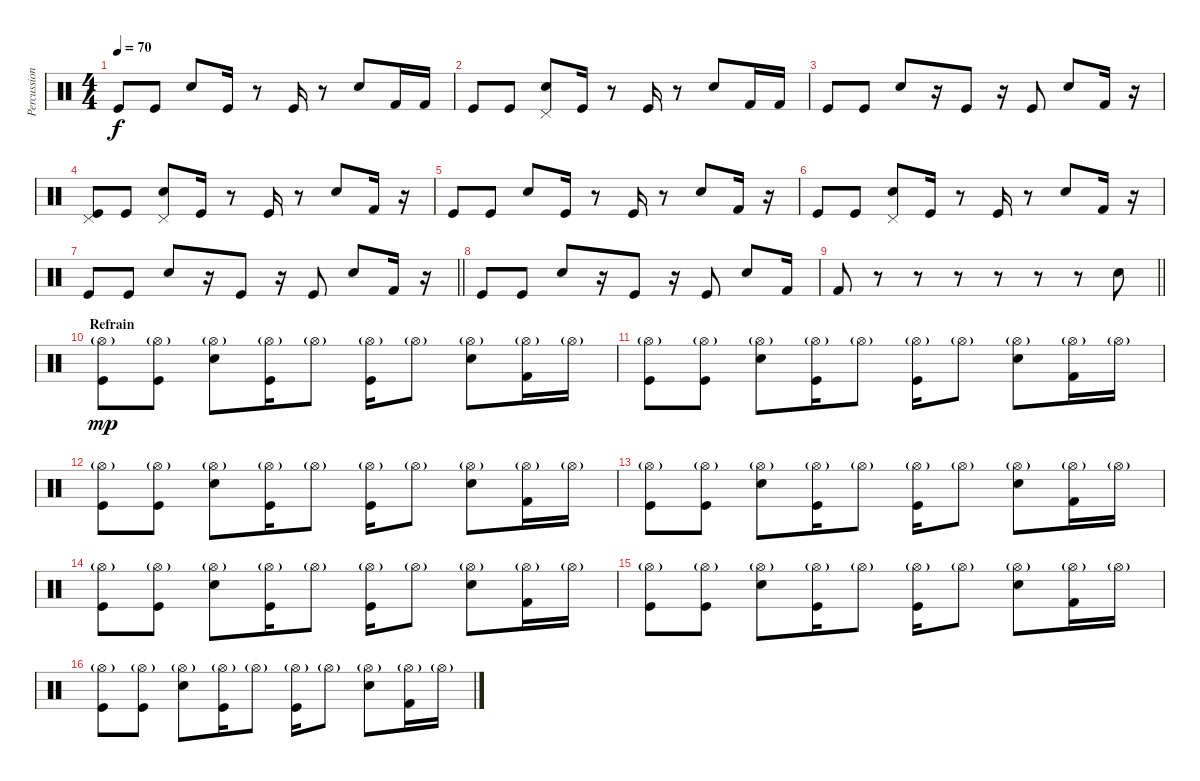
\track ("Percussion" "Percussion") {instrument percussion}
\staff {score}
\articulation defaults
\ts (4 4)
\tempo 70
\clef neutral
\ks c "Kick (hit)".8{dy f} "Kick (hit)".8 "Snare (hit) 2".8 "Kick (hit)".16
r.8 "Kick (hit)".16 r.8 "Snare (hit) 2".8 "Kick (hit) 2".16 "Kick (hit) 2".16 |
"Kick (hit)".8 "Kick (hit)".8 ("Pedal Hi-Hat (hit)" "Snare (hit) 2").8 "Kick (hit)".16 r.8 "Kick (hit)".16 r.8 "Snare (hit) 2".8 "Kick (hit) 2".16 "Kick (hit) 2".16 |
"Kick (hit)".8 "Kick (hit)".8 "Snare (hit) 2".8 r.16 "Kick (hit)".8 r.16 "Kick (hit)".8 "Snare (hit) 2".8 "Kick (hit) 2".16 r.16 |
("Pedal Hi-Hat (hit)" "Kick (hit)").8 "Kick (hit)".8 ("Pedal Hi-Hat (hit)" "Snare (hit) 2").8 "Kick (hit)".16 r.8 "Kick (hit)".16 r.8 "Snare (hit) 2".8 "Kick (hit) 2".16 r.16 |
"Kick (hit)".8 "Kick (hit)".8 "Snare (hit) 2".8 "Kick (hit)".16 r.8 "Kick (hit)".16 r.8 "Snare (hit) 2".8 "Kick (hit) 2".16 r.16 |
"Kick (hit)".8 "Kick (hit)".8 ("Pedal Hi-Hat (hit)" "Snare (hit) 2").8 "Kick (hit)".16 r.8 "Kick (hit)".16 r.8 "Snare (hit) 2".8 "Kick (hit) 2".16 r.16 |
\barLineRight lightlight "Kick (hit)".8 "Kick (hit)".8 "Snare (hit) 2".8
r.16 "Kick (hit)".8 r.16 "Kick (hit)".8 "Snare (hit) 2".8 "Kick (hit) 2".16 r.16 |
"Kick (hit)".8 "Kick (hit)".8 "Snare (hit) 2".8 r.16 "Kick (hit)".8 r.16 "Kick (hit)".8 "Snare (hit) 2".8 "Kick (hit) 2".16 |
\barLineRight lightlight "Kick (hit) 2".8
r.8 r.8 r.8 r.8 r.8 r.8 "Electric Snare (hit)".8 |
\section ("" "Refrain")
("Hi-Hat (open)"{g} "Kick (hit)").8{dy mp} ("Hi-Hat (open)"{g} "Kick (hit)").8 ("Hi-Hat (open)"{g} "Snare (hit) 2").8 ("Hi-Hat (open)"{g} "Kick (hit)").16 "Hi-Hat (open)"{g}.8 ("Hi-Hat (open)"{g} "Kick (hit)").16 "Hi-Hat (open)"{g}.8 ("Hi-Hat (open)"{g} "Snare (hit) 2").8 ("Hi-Hat (open)"{g} "Kick (hit) 2").16 "Hi-Hat (open)"{g}.16 |
("Hi-Hat (open)"{g} "Kick (hit)").8 ("Hi-Hat (open)"{g} "Kick (hit)").8 ("Hi-Hat (open)"{g} "Snare (hit) 2").8 ("Hi-Hat (open)"{g} "Kick (hit)").16 "Hi-Hat (open)"{g}.8 ("Hi-Hat (open)"{g} "Kick (hit)").16 "Hi-Hat (open)"{g}.8 ("Hi-Hat (open)"{g} "Snare (hit) 2").8 ("Hi-Hat (open)"{g} "Kick (hit) 2").16 "Hi-Hat (open)"{g}.16 |
("Hi-Hat (open)"{g} "Kick (hit)").8 ("Hi-Hat (open)"{g} "Kick (hit)").8 ("Hi-Hat (open)"{g} "Snare (hit) 2").8 ("Hi-Hat (open)"{g} "Kick (hit)").16 "Hi-Hat (open)"{g}.8 ("Hi-Hat (open)"{g} "Kick (hit)").16 "Hi-Hat (open)"{g}.8 ("Hi-Hat (open)"{g} "Snare (hit) 2").8 ("Hi-Hat (open)"{g} "Kick (hit) 2").16 "Hi-Hat (open)"{g}.16 |
("Hi-Hat (open)"{g} "Kick (hit)").8 ("Hi-Hat (open)"{g} "Kick (hit)").8 ("Hi-Hat (open)"{g} "Snare (hit) 2").8 ("Hi-Hat (open)"{g} "Kick (hit)").16 "Hi-Hat (open)"{g}.8 ("Hi-Hat (open)"{g} "Kick (hit)").16 "Hi-Hat (open)"{g}.8 ("Hi-Hat (open)"{g} "Snare (hit) 2").8 ("Hi-Hat (open)"{g} "Kick (hit) 2").16 "Hi-Hat (open)"{g}.16 |
("Hi-Hat (open)"{g} "Kick (hit)").8 ("Hi-Hat (open)"{g} "Kick (hit)").8 ("Hi-Hat (open)"{g} "Snare (hit) 2").8 ("Hi-Hat (open)"{g} "Kick (hit)").16 "Hi-Hat (open)"{g}.8 ("Hi-Hat (open)"{g} "Kick (hit)").16 "Hi-Hat (open)"{g}.8 ("Hi-Hat (open)"{g} "Snare (hit) 2").8 ("Hi-Hat (open)"{g} "Kick (hit) 2").16 "Hi-Hat (open)"{g}.16 |
("Hi-Hat (open)"{g} "Kick (hit)").8 ("Hi-Hat (open)"{g} "Kick (hit)").8 ("Hi-Hat (open)"{g} "Snare (hit) 2").8 ("Hi-Hat (open)"{g} "Kick (hit)").16 "Hi-Hat (open)"{g}.8 ("Hi-Hat (open)"{g} "Kick (hit)").16 "Hi-Hat (open)"{g}.8 ("Hi-Hat (open)"{g} "Snare (hit) 2").8 ("Hi-Hat (open)"{g} "Kick (hit) 2").16 "Hi-Hat (open)"{g}.16 |
("Hi-Hat (open)"{g} "Kick (hit)").8 ("Hi-Hat (open)"{g} "Kick (hit)").8 ("Hi-Hat (open)"{g} "Snare (hit) 2").8 ("Hi-Hat (open)"{g} "Kick (hit)").16 "Hi-Hat (open)"{g}.8 ("Hi-Hat (open)"{g} "Kick (hit)").16 "Hi-Hat (open)"{g}.8 ("Hi-Hat (open)"{g} "Snare (hit) 2").8 ("Hi-Hat (open)"{g} "Kick (hit) 2").16 "Hi-Hat (open)"{g}.16
